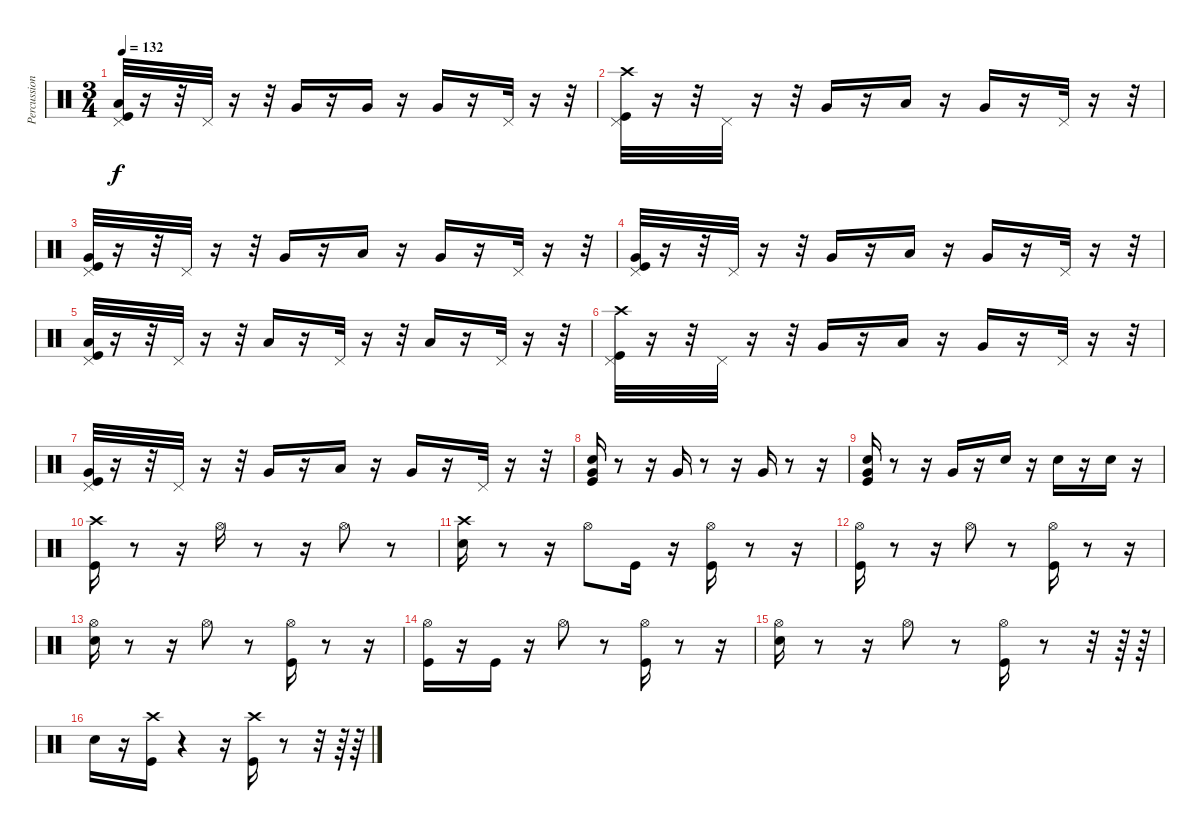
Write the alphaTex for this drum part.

\track ("Percussion" "Percussion") {instrument percussion}
\staff {score}
\articulation defaults
\ts (3 4)
\tempo 132
\clef neutral
\ks c
("Kick (hit)" "Low Tom (hit)" "Pedal Hi-Hat (hit)").32{dy f} r.16 r.32 "Pedal Hi-Hat (hit)".32 r.16 r.32 "Very Low Tom (hit)".16 r.16 "Very Low Tom (hit)".16 r.16 "Very Low Tom (hit)".16 r.16 "Pedal Hi-Hat (hit)".32 r.16 r.32 |
("Kick (hit)" "Crash high (hit)" "Pedal Hi-Hat (hit)").32 r.16 r.32 "Pedal Hi-Hat (hit)".32 r.16 r.32 "Very Low Tom (hit)".16 r.16 "Low Tom (hit)".16 r.16 "Very Low Tom (hit)".16 r.16 "Pedal Hi-Hat (hit)".32 r.16 r.32 |
("Kick (hit)" "Pedal Hi-Hat (hit)" "Very Low Tom (hit)").32 r.16 r.32 "Pedal Hi-Hat (hit)".32 r.16 r.32 "Very Low Tom (hit)".16 r.16 "Low Tom (hit)".16 r.16 "Very Low Tom (hit)".16 r.16 "Pedal Hi-Hat (hit)".32 r.16 r.32 |
("Kick (hit)" "Pedal Hi-Hat (hit)" "Very Low Tom (hit)").32 r.16 r.32 "Pedal Hi-Hat (hit)".32 r.16 r.32 "Very Low Tom (hit)".16 r.16 "Low Tom (hit)".16 r.16 "Very Low Tom (hit)".16 r.16 "Pedal Hi-Hat (hit)".32 r.16 r.32 |
("Kick (hit)" "Low Tom (hit)" "Pedal Hi-Hat (hit)").32 r.16 r.32 "Pedal Hi-Hat (hit)".32 r.16 r.32 "Low Floor Tom (hit)".16 r.16 "Pedal Hi-Hat (hit)".32 r.16 r.32 "Low Floor Tom (hit)".16 r.16 "Pedal Hi-Hat (hit)".32 r.16 r.32 |
("Pedal Hi-Hat (hit)" "Kick (hit)" "Crash high (hit)").32 r.16 r.32 "Pedal Hi-Hat (hit)".32 r.16 r.32 "Very Low Tom (hit)".16 r.16 "Low Tom (hit)".16 r.16 "Very Low Tom (hit)".16 r.16 "Pedal Hi-Hat (hit)".32 r.16 r.32 |
("Pedal Hi-Hat (hit)" "Kick (hit)" "Very Low Tom (hit)").32 r.16 r.32 "Pedal Hi-Hat (hit)".32 r.16 r.32 "Very Low Tom (hit)".16 r.16 "Low Tom (hit)".16 r.16 "Very Low Tom (hit)".16 r.16 "Pedal Hi-Hat (hit)".32 r.16 r.32 |
("Very Low Tom (hit)" "Kick (hit)" "Snare (hit) 2").16 r.8 r.16 "Very Low Tom (hit)".16 r.8 r.16 "Very Low Tom (hit)".16 r.8 r.16 |
("Snare (hit) 2" "Kick (hit)" "Very Low Tom (hit)").16 r.8 r.16 "Very Low Tom (hit)".16 r.16 "Snare (hit) 2".16 r.16 "Snare (hit) 2".16 r.16 "Snare (hit) 2".16 r.16 |
("Crash high (hit)" "Kick (hit)").16 r.8 r.16 "Hi-Hat (open)".16 r.8 r.16 "Hi-Hat (open)".8 r.8 |
("Snare (hit) 2" "Crash high (hit)").16 r.8 r.16 "Hi-Hat (open)".8 "Kick (hit)".16 r.16 ("Hi-Hat (open)" "Kick (hit)").16 r.8 r.16 |
("Kick (hit)" "Hi-Hat (open)").16 r.8 r.16 "Hi-Hat (open)".8 r.8 ("Hi-Hat (open)" "Kick (hit)").16 r.8 r.16 |
("Hi-Hat (open)" "Snare (hit) 2").16 r.8 r.16 "Hi-Hat (open)".8 r.8 ("Hi-Hat (open)" "Kick (hit)").16 r.8 r.16 |
("Hi-Hat (open)" "Kick (hit)").16 r.16 "Kick (hit)".16 r.16 "Hi-Hat (open)".8 r.8 ("Kick (hit)" "Hi-Hat (open)").16 r.8 r.16 |
("Hi-Hat (open)" "Snare (hit) 2").16 r.8 r.16 "Hi-Hat (open)".8 r.8 ("Hi-Hat (open)" "Kick (hit)").16 r.8 r.32 r.64 r.64 |
"Snare (hit) 2".16 r.16 ("Kick (hit)" "Crash high (hit)").16 r.4 r.16 ("Kick (hit)" "Crash high (hit)").16 r.8 r.32 r.64 r.64
